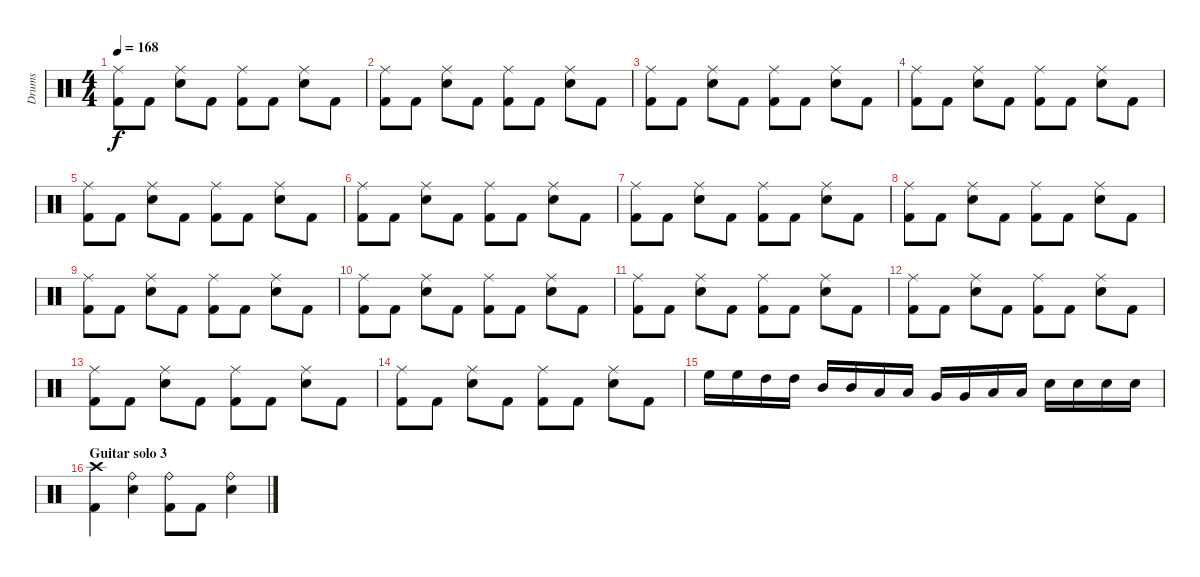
\track ("Drums" "Drums") {instrument percussion}
\staff {score}
\articulation defaults
\ts (4 4)
\tempo 168
\clef neutral
\ks c
("Ride (middle)" "Kick (hit) 2").8{dy f} "Kick (hit) 2".8 ("Ride (middle)" "Electric Snare (hit)").8 "Kick (hit) 2".8 ("Ride (middle)" "Kick (hit) 2").8 "Kick (hit) 2".8 ("Ride (middle)" "Electric Snare (hit)").8 "Kick (hit) 2".8 |
("Ride (middle)" "Kick (hit) 2").8 "Kick (hit) 2".8 ("Ride (middle)" "Electric Snare (hit)").8 "Kick (hit) 2".8 ("Ride (middle)" "Kick (hit) 2").8 "Kick (hit) 2".8 ("Ride (middle)" "Electric Snare (hit)").8 "Kick (hit) 2".8 |
("Ride (middle)" "Kick (hit) 2").8 "Kick (hit) 2".8 ("Ride (middle)" "Electric Snare (hit)").8 "Kick (hit) 2".8 ("Ride (middle)" "Kick (hit) 2").8 "Kick (hit) 2".8 ("Ride (middle)" "Electric Snare (hit)").8 "Kick (hit) 2".8 |
("Ride (middle)" "Kick (hit) 2").8 "Kick (hit) 2".8 ("Ride (middle)" "Electric Snare (hit)").8 "Kick (hit) 2".8 ("Ride (middle)" "Kick (hit) 2").8 "Kick (hit) 2".8 ("Ride (middle)" "Electric Snare (hit)").8 "Kick (hit) 2".8 |
("Ride (middle)" "Kick (hit) 2").8 "Kick (hit) 2".8 ("Ride (middle)" "Electric Snare (hit)").8 "Kick (hit) 2".8 ("Ride (middle)" "Kick (hit) 2").8 "Kick (hit) 2".8 ("Ride (middle)" "Electric Snare (hit)").8 "Kick (hit) 2".8 |
("Ride (middle)" "Kick (hit) 2").8 "Kick (hit) 2".8 ("Ride (middle)" "Electric Snare (hit)").8 "Kick (hit) 2".8 ("Ride (middle)" "Kick (hit) 2").8 "Kick (hit) 2".8 ("Ride (middle)" "Electric Snare (hit)").8 "Kick (hit) 2".8 |
("Ride (middle)" "Kick (hit) 2").8 "Kick (hit) 2".8 ("Ride (middle)" "Electric Snare (hit)").8 "Kick (hit) 2".8 ("Ride (middle)" "Kick (hit) 2").8 "Kick (hit) 2".8 ("Ride (middle)" "Electric Snare (hit)").8 "Kick (hit) 2".8 |
("Ride (middle)" "Kick (hit) 2").8 "Kick (hit) 2".8 ("Ride (middle)" "Electric Snare (hit)").8 "Kick (hit) 2".8 ("Ride (middle)" "Kick (hit) 2").8 "Kick (hit) 2".8 ("Ride (middle)" "Electric Snare (hit)").8 "Kick (hit) 2".8 |
("Ride (middle)" "Kick (hit) 2").8 "Kick (hit) 2".8 ("Ride (middle)" "Electric Snare (hit)").8 "Kick (hit) 2".8 ("Ride (middle)" "Kick (hit) 2").8 "Kick (hit) 2".8 ("Ride (middle)" "Electric Snare (hit)").8 "Kick (hit) 2".8 |
("Ride (middle)" "Kick (hit) 2").8 "Kick (hit) 2".8 ("Ride (middle)" "Electric Snare (hit)").8 "Kick (hit) 2".8 ("Ride (middle)" "Kick (hit) 2").8 "Kick (hit) 2".8 ("Ride (middle)" "Electric Snare (hit)").8 "Kick (hit) 2".8 |
("Ride (middle)" "Kick (hit) 2").8 "Kick (hit) 2".8 ("Ride (middle)" "Electric Snare (hit)").8 "Kick (hit) 2".8 ("Ride (middle)" "Kick (hit) 2").8 "Kick (hit) 2".8 ("Ride (middle)" "Electric Snare (hit)").8 "Kick (hit) 2".8 |
("Ride (middle)" "Kick (hit) 2").8 "Kick (hit) 2".8 ("Ride (middle)" "Electric Snare (hit)").8 "Kick (hit) 2".8 ("Ride (middle)" "Kick (hit) 2").8 "Kick (hit) 2".8 ("Ride (middle)" "Electric Snare (hit)").8 "Kick (hit) 2".8 |
("Ride (middle)" "Kick (hit) 2").8 "Kick (hit) 2".8 ("Ride (middle)" "Electric Snare (hit)").8 "Kick (hit) 2".8 ("Ride (middle)" "Kick (hit) 2").8 "Kick (hit) 2".8 ("Ride (middle)" "Electric Snare (hit)").8 "Kick (hit) 2".8 |
("Ride (middle)" "Kick (hit) 2").8 "Kick (hit) 2".8 ("Ride (middle)" "Electric Snare (hit)").8 "Kick (hit) 2".8 ("Ride (middle)" "Kick (hit) 2").8 "Kick (hit) 2".8 ("Ride (middle)" "Electric Snare (hit)").8 "Kick (hit) 2".8 |
"High Floor Tom (hit)".16 "High Floor Tom (hit)".16 "High Tom (hit)".16 "High Tom (hit)".16 "Mid Tom (hit)".16 "Mid Tom (hit)".16 "Low Tom (hit)".16 "Low Tom (hit)".16 "Very Low Tom (hit)".16 "Very Low Tom (hit)".16 "Low Floor Tom (hit)".16 "Low Floor Tom (hit)".16 "Electric Snare (hit)".16 "Electric Snare (hit)".16 "Electric Snare (hit)".16 "Electric Snare (hit)".16 |
\section ("" "Guitar solo 3")
("Crash high (hit)" "Kick (hit) 2").4 ("Ride (bell)" "Electric Snare (hit)").4 ("Ride (bell)" "Kick (hit) 2").8 "Kick (hit) 2".8 ("Ride (bell)" "Electric Snare (hit)").4
